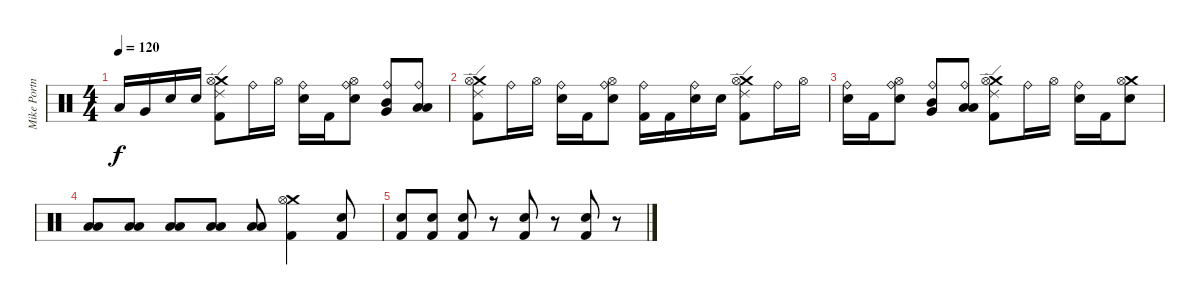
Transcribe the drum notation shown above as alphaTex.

\track ("Mike Portnoy - Batterie" "Mike Portn") {instrument percussion}
\staff {score}
\articulation defaults
\ts (4 4)
\tempo 120
\clef neutral
\ks c "Low Tom (hit)".16{dy f} "Very Low Tom (hit)".16 "Electric Snare (hit)".16 "Electric Snare (hit)".16
("Crash medium (hit)" "Hi-Hat (open)" "Kick (hit) 2" "Ride (edge) 2").8 "Ride (bell)".16 "Hi-Hat (open)".16 ("Ride (bell)" "Electric Snare (hit)").16 "Kick (hit) 2".16 ("Ride (bell)" "Hi-Hat (open)" "Electric Snare (hit)").8 ("Ride (bell)" "Mid Tom (hit)" "Very Low Tom (hit)").8 ("Ride (bell)" "Low Tom (hit)" "Low Floor Tom (hit)").8 |
("Crash medium (hit)" "Hi-Hat (open)" "Kick (hit) 2" "Ride (edge) 2").8 "Ride (bell)".16 "Hi-Hat (open)".16 ("Ride (bell)" "Electric Snare (hit)").16 "Kick (hit) 2".16 ("Ride (bell)" "Hi-Hat (open)" "Electric Snare (hit)").8 ("Kick (hit) 2" "Ride (bell)").16 "Kick (hit) 2".16 ("Electric Snare (hit)" "Ride (bell)").16 "Electric Snare (hit)".16 ("Crash medium (hit)" "Hi-Hat (open)" "Kick (hit) 2" "Ride (edge) 2").8 "Ride (bell)".16 "Hi-Hat (open)".16 |
("Ride (bell)" "Electric Snare (hit)").16 "Kick (hit) 2".16 ("Ride (bell)" "Hi-Hat (open)" "Electric Snare (hit)").8 ("Ride (bell)" "Mid Tom (hit)" "Very Low Tom (hit)").8 ("Ride (bell)" "Low Tom (hit)" "Low Floor Tom (hit)").8 ("Crash medium (hit)" "Hi-Hat (open)" "Kick (hit) 2" "Ride (edge) 2").8 "Ride (bell)".16 "Hi-Hat (open)".16 ("Ride (bell)" "Electric Snare (hit)").16 "Kick (hit) 2".16 ("Crash medium (hit)" "Hi-Hat (open)" "Electric Snare (hit)").8 |
("Low Tom (hit)" "Low Floor Tom (hit)").8 ("Low Tom (hit)" "Low Floor Tom (hit)").8 ("Low Tom (hit)" "Low Floor Tom (hit)").8 ("Low Tom (hit)" "Low Floor Tom (hit)").8 ("Low Tom (hit)" "Low Floor Tom (hit)").8 ("Crash medium (hit)" "Hi-Hat (open)" "Kick (hit) 2").4 ("Kick (hit) 2" "Electric Snare (hit)").8 |
("Kick (hit) 2" "Electric Snare (hit)").8 ("Kick (hit) 2" "Electric Snare (hit)").8 ("Kick (hit) 2" "Electric Snare (hit)").8 r.8 ("Kick (hit) 2" "Electric Snare (hit)").8 r.8 ("Kick (hit) 2" "Electric Snare (hit)").8 r.8
